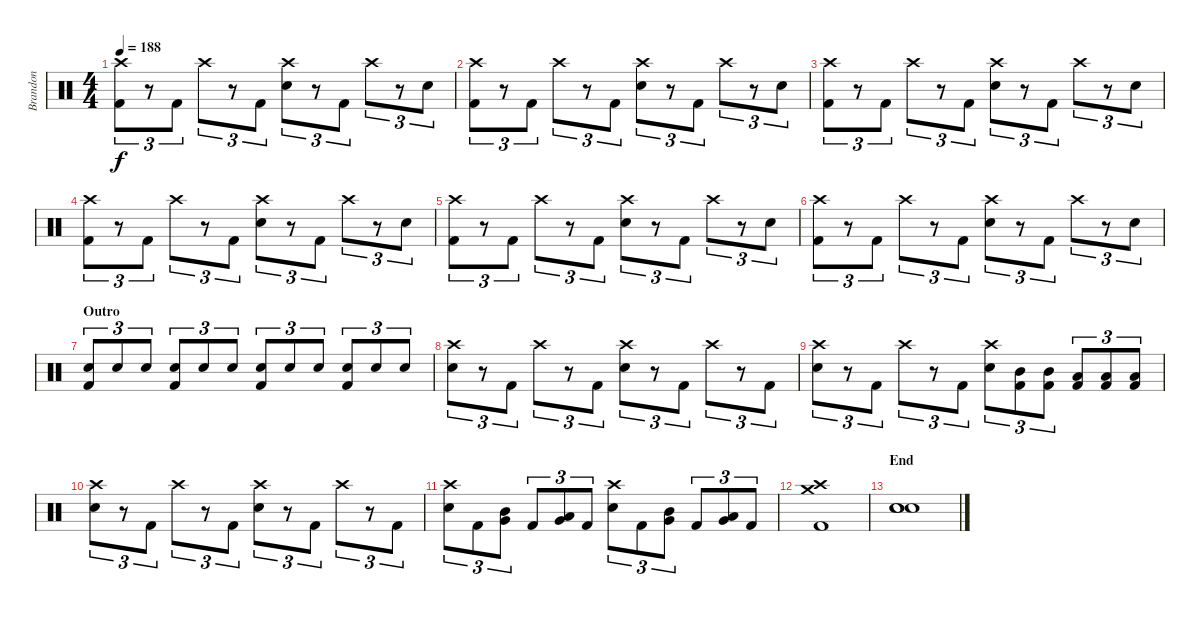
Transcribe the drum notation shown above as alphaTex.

\track ("Brandon" "Brandon") {instrument percussion}
\staff {score}
\articulation defaults
\ts (4 4)
\tempo 188
\clef neutral
\ks c
("Crash high (hit)" "Kick (hit) 2").8{tu (3 2) dy f} r.8{tu (3 2)} "Kick (hit) 2".8{tu (3 2)} "Crash high (hit)".8{tu (3 2)} r.8{tu (3 2)} "Kick (hit) 2".8{tu (3 2)} ("Crash high (hit)" "Snare (hit) 2").8{tu (3 2)} r.8{tu (3 2)} "Kick (hit) 2".8{tu (3 2)} "Crash high (hit)".8{tu (3 2)} r.8{tu (3 2)} "Snare (hit) 2".8{tu (3 2)} |
("Crash high (hit)" "Kick (hit) 2").8{tu (3 2)} r.8{tu (3 2)} "Kick (hit) 2".8{tu (3 2)} "Crash high (hit)".8{tu (3 2)} r.8{tu (3 2)} "Kick (hit) 2".8{tu (3 2)} ("Crash high (hit)" "Snare (hit) 2").8{tu (3 2)} r.8{tu (3 2)} "Kick (hit) 2".8{tu (3 2)} "Crash high (hit)".8{tu (3 2)} r.8{tu (3 2)} "Snare (hit) 2".8{tu (3 2)} |
("Crash high (hit)" "Kick (hit) 2").8{tu (3 2)} r.8{tu (3 2)} "Kick (hit) 2".8{tu (3 2)} "Crash high (hit)".8{tu (3 2)} r.8{tu (3 2)} "Kick (hit) 2".8{tu (3 2)} ("Crash high (hit)" "Snare (hit) 2").8{tu (3 2)} r.8{tu (3 2)} "Kick (hit) 2".8{tu (3 2)} "Crash high (hit)".8{tu (3 2)} r.8{tu (3 2)} "Snare (hit) 2".8{tu (3 2)} |
("Crash high (hit)" "Kick (hit) 2").8{tu (3 2)} r.8{tu (3 2)} "Kick (hit) 2".8{tu (3 2)} "Crash high (hit)".8{tu (3 2)} r.8{tu (3 2)} "Kick (hit) 2".8{tu (3 2)} ("Crash high (hit)" "Snare (hit) 2").8{tu (3 2)} r.8{tu (3 2)} "Kick (hit) 2".8{tu (3 2)} "Crash high (hit)".8{tu (3 2)} r.8{tu (3 2)} "Snare (hit) 2".8{tu (3 2)} |
("Crash high (hit)" "Kick (hit) 2").8{tu (3 2)} r.8{tu (3 2)} "Kick (hit) 2".8{tu (3 2)} "Crash high (hit)".8{tu (3 2)} r.8{tu (3 2)} "Kick (hit) 2".8{tu (3 2)} ("Crash high (hit)" "Snare (hit) 2").8{tu (3 2)} r.8{tu (3 2)} "Kick (hit) 2".8{tu (3 2)} "Crash high (hit)".8{tu (3 2)} r.8{tu (3 2)} "Snare (hit) 2".8{tu (3 2)} |
("Crash high (hit)" "Kick (hit) 2").8{tu (3 2)} r.8{tu (3 2)} "Kick (hit) 2".8{tu (3 2)} "Crash high (hit)".8{tu (3 2)} r.8{tu (3 2)} "Kick (hit) 2".8{tu (3 2)} ("Crash high (hit)" "Snare (hit) 2").8{tu (3 2)} r.8{tu (3 2)} "Kick (hit) 2".8{tu (3 2)} "Crash high (hit)".8{tu (3 2)} r.8{tu (3 2)} "Snare (hit) 2".8{tu (3 2)} |
\section ("" "Outro")
("Snare (hit) 2" "Kick (hit) 2").8{tu (3 2)} "Snare (hit) 2".8{tu (3 2)} "Snare (hit) 2".8{tu (3 2)} ("Snare (hit) 2" "Kick (hit) 2").8{tu (3 2)} "Snare (hit) 2".8{tu (3 2)} "Snare (hit) 2".8{tu (3 2)} ("Snare (hit) 2" "Kick (hit) 2").8{tu (3 2)} "Snare (hit) 2".8{tu (3 2)} "Snare (hit) 2".8{tu (3 2)} ("Snare (hit) 2" "Kick (hit) 2").8{tu (3 2)} "Snare (hit) 2".8{tu (3 2)} "Snare (hit) 2".8{tu (3 2)} |
("Crash high (hit)" "Snare (hit) 2").8{tu (3 2)} r.8{tu (3 2)} "Kick (hit) 2".8{tu (3 2)} "Crash high (hit)".8{tu (3 2)} r.8{tu (3 2)} "Kick (hit) 2".8{tu (3 2)} ("Crash high (hit)" "Snare (hit) 2").8{tu (3 2)} r.8{tu (3 2)} "Kick (hit) 2".8{tu (3 2)} "Crash high (hit)".8{tu (3 2)} r.8{tu (3 2)} "Kick (hit) 2".8{tu (3 2)} |
("Crash high (hit)" "Snare (hit) 2").8{tu (3 2)} r.8{tu (3 2)} "Kick (hit) 2".8{tu (3 2)} "Crash high (hit)".8{tu (3 2)} r.8{tu (3 2)} "Kick (hit) 2".8{tu (3 2)} ("Crash high (hit)" "Snare (hit) 2").8{tu (3 2)} ("Mid Tom (hit)" "Kick (hit) 2").8{tu (3 2)} ("Mid Tom (hit)" "Kick (hit) 2").8{tu (3 2)} ("Low Tom (hit)" "Kick (hit) 2").8{tu (3 2)} ("Low Tom (hit)" "Kick (hit) 2").8{tu (3 2)} ("Low Tom (hit)" "Kick (hit) 2").8{tu (3 2)} |
("Crash high (hit)" "Snare (hit) 2").8{tu (3 2)} r.8{tu (3 2)} "Kick (hit) 2".8{tu (3 2)} "Crash high (hit)".8{tu (3 2)} r.8{tu (3 2)} "Kick (hit) 2".8{tu (3 2)} ("Crash high (hit)" "Snare (hit) 2").8{tu (3 2)} r.8{tu (3 2)} "Kick (hit) 2".8{tu (3 2)} "Crash high (hit)".8{tu (3 2)} r.8{tu (3 2)} "Kick (hit) 2".8{tu (3 2)} |
("Crash high (hit)" "Snare (hit) 2").8{tu (3 2)} "Kick (hit) 2".8{tu (3 2)} ("Very Low Tom (hit)" "Mid Tom (hit)").8{tu (3 2)} "Kick (hit) 2".8{tu (3 2)} ("Very Low Tom (hit)" "Low Tom (hit)").8{tu (3 2)} "Kick (hit) 2".8{tu (3 2)} ("Crash high (hit)" "Snare (hit) 2").8{tu (3 2)} "Kick (hit) 2".8{tu (3 2)} ("Very Low Tom (hit)" "Mid Tom (hit)").8{tu (3 2)} "Kick (hit) 2".8{tu (3 2)} ("Very Low Tom (hit)" "Low Tom (hit)").8{tu (3 2)} "Kick (hit) 2".8{tu (3 2)} |
("Crash high (hit)" "Crash medium (hit)" "Kick (hit) 2").1 |
\section ("" "End")
("Snare (hit)" "Snare (hit)" "Snare (hit)").1
